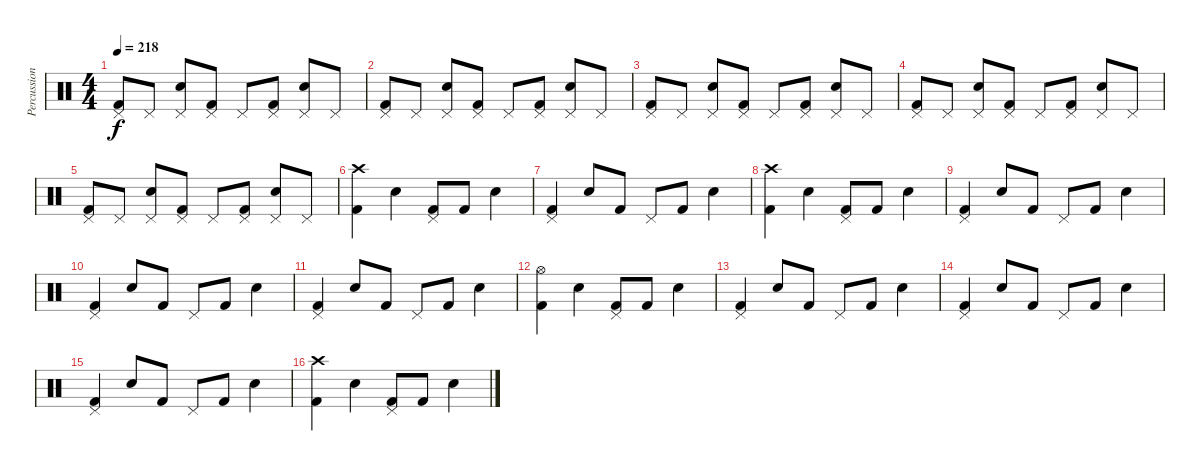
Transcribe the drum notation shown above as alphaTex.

\track ("Percussion" "Percussion") {instrument percussion}
\staff {score}
\articulation defaults
\ts (4 4)
\tempo 218
\clef neutral
\ks c
("Kick (hit) 2" "Pedal Hi-Hat (hit)").8{dy f} "Pedal Hi-Hat (hit)".8 ("Snare (hit) 2" "Pedal Hi-Hat (hit)").8 ("Kick (hit) 2" "Pedal Hi-Hat (hit)").8 "Pedal Hi-Hat (hit)".8 ("Kick (hit) 2" "Pedal Hi-Hat (hit)").8 ("Snare (hit) 2" "Pedal Hi-Hat (hit)").8 "Pedal Hi-Hat (hit)".8 |
("Kick (hit) 2" "Pedal Hi-Hat (hit)").8 "Pedal Hi-Hat (hit)".8 ("Snare (hit) 2" "Pedal Hi-Hat (hit)").8 ("Kick (hit) 2" "Pedal Hi-Hat (hit)").8 "Pedal Hi-Hat (hit)".8 ("Kick (hit) 2" "Pedal Hi-Hat (hit)").8 ("Snare (hit) 2" "Pedal Hi-Hat (hit)").8 "Pedal Hi-Hat (hit)".8 |
("Kick (hit) 2" "Pedal Hi-Hat (hit)").8 "Pedal Hi-Hat (hit)".8 ("Snare (hit) 2" "Pedal Hi-Hat (hit)").8 ("Kick (hit) 2" "Pedal Hi-Hat (hit)").8 "Pedal Hi-Hat (hit)".8 ("Kick (hit) 2" "Pedal Hi-Hat (hit)").8 ("Snare (hit) 2" "Pedal Hi-Hat (hit)").8 "Pedal Hi-Hat (hit)".8 |
("Kick (hit) 2" "Pedal Hi-Hat (hit)").8 "Pedal Hi-Hat (hit)".8 ("Snare (hit) 2" "Pedal Hi-Hat (hit)").8 ("Kick (hit) 2" "Pedal Hi-Hat (hit)").8 "Pedal Hi-Hat (hit)".8 ("Kick (hit) 2" "Pedal Hi-Hat (hit)").8 ("Snare (hit) 2" "Pedal Hi-Hat (hit)").8 "Pedal Hi-Hat (hit)".8 |
("Kick (hit) 2" "Pedal Hi-Hat (hit)").8 "Pedal Hi-Hat (hit)".8 ("Snare (hit) 2" "Pedal Hi-Hat (hit)").8 ("Kick (hit) 2" "Pedal Hi-Hat (hit)").8 "Pedal Hi-Hat (hit)".8 ("Kick (hit) 2" "Pedal Hi-Hat (hit)").8 ("Snare (hit) 2" "Pedal Hi-Hat (hit)").8 "Pedal Hi-Hat (hit)".8 |
("Kick (hit) 2" "Crash high (hit)").4 "Snare (hit) 2".4 ("Kick (hit) 2" "Pedal Hi-Hat (hit)").8 "Kick (hit) 2".8 "Snare (hit) 2".4 |
("Kick (hit) 2" "Pedal Hi-Hat (hit)").4 "Snare (hit) 2".8 "Kick (hit) 2".8 "Pedal Hi-Hat (hit)".8 "Kick (hit) 2".8 "Snare (hit) 2".4 |
("Kick (hit) 2" "Crash high (hit)").4 "Snare (hit) 2".4 ("Kick (hit) 2" "Pedal Hi-Hat (hit)").8 "Kick (hit) 2".8 "Snare (hit) 2".4 |
("Kick (hit) 2" "Pedal Hi-Hat (hit)").4 "Snare (hit) 2".8 "Kick (hit) 2".8 "Pedal Hi-Hat (hit)".8 "Kick (hit) 2".8 "Snare (hit) 2".4 |
("Kick (hit) 2" "Pedal Hi-Hat (hit)").4 "Snare (hit) 2".8 "Kick (hit) 2".8 "Pedal Hi-Hat (hit)".8 "Kick (hit) 2".8 "Snare (hit) 2".4 |
("Kick (hit) 2" "Pedal Hi-Hat (hit)").4 "Snare (hit) 2".8 "Kick (hit) 2".8 "Pedal Hi-Hat (hit)".8 "Kick (hit) 2".8 "Snare (hit) 2".4 |
("Kick (hit) 2" "Hi-Hat (open)").4 "Snare (hit) 2".4 ("Kick (hit) 2" "Pedal Hi-Hat (hit)").8 "Kick (hit) 2".8 "Snare (hit) 2".4 |
("Kick (hit) 2" "Pedal Hi-Hat (hit)").4 "Snare (hit) 2".8 "Kick (hit) 2".8 "Pedal Hi-Hat (hit)".8 "Kick (hit) 2".8 "Snare (hit) 2".4 |
("Kick (hit) 2" "Pedal Hi-Hat (hit)").4 "Snare (hit) 2".8 "Kick (hit) 2".8 "Pedal Hi-Hat (hit)".8 "Kick (hit) 2".8 "Snare (hit) 2".4 |
("Kick (hit) 2" "Pedal Hi-Hat (hit)").4 "Snare (hit) 2".8 "Kick (hit) 2".8 "Pedal Hi-Hat (hit)".8 "Kick (hit) 2".8 "Snare (hit) 2".4 |
("Kick (hit) 2" "Crash high (hit)").4 "Snare (hit) 2".4 ("Kick (hit) 2" "Pedal Hi-Hat (hit)").8 "Kick (hit) 2".8 "Snare (hit) 2".4
